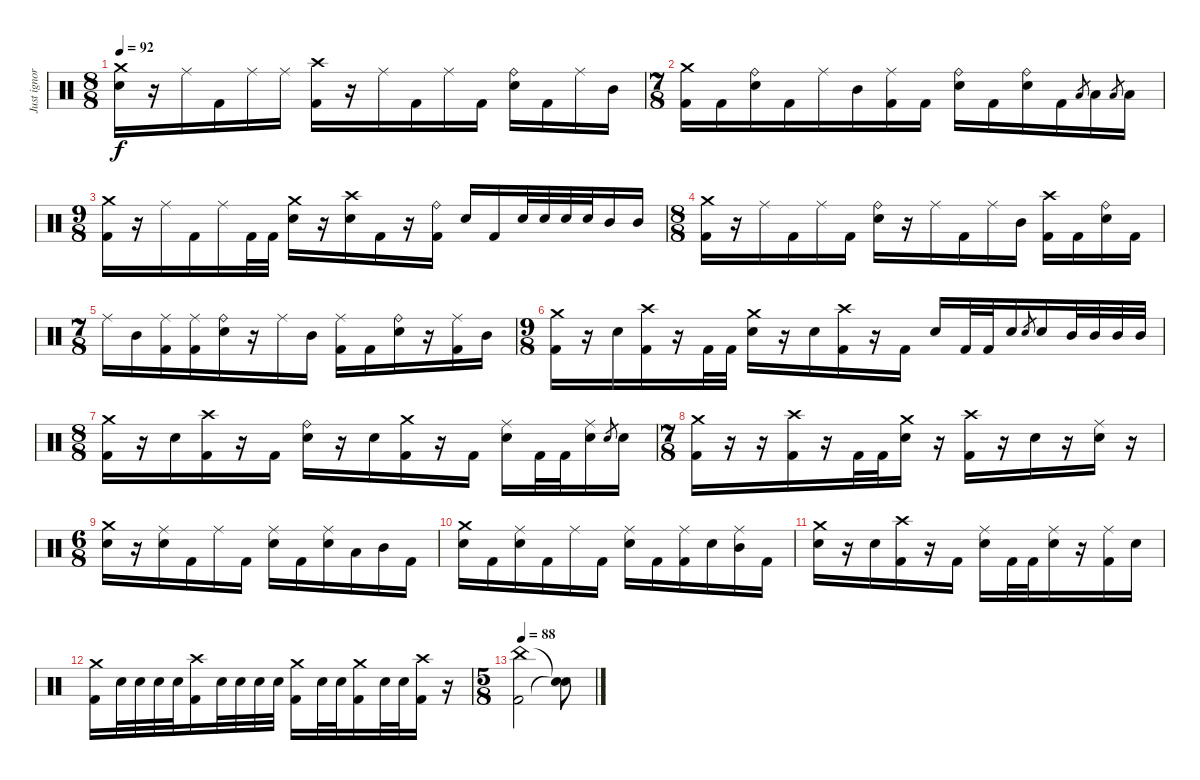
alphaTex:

\track ("Just ignore this track" "Just ignor") {instrument percussion}
\staff {score}
\articulation defaults
\ts (8 8)
\tempo 92
\clef neutral
\ks c
("Crash medium (hit)" "Electric Snare (hit)").16{dy f} r.16 "Ride (middle)".16 "Kick (hit) 2".16 "Ride (middle)".16 "Ride (middle)".16 ("Crash high (hit)" "Kick (hit) 2").16 r.16 "Ride (middle)".16 "Kick (hit) 2".16 "Ride (middle)".16 "Kick (hit) 2".16 ("Ride (bell)" "Electric Snare (hit)").16 "Kick (hit) 2".16 "Ride (middle)".16 "Mid Tom (hit)".16 |
\ts (7 8)
("Crash medium (hit)" "Kick (hit) 2").16 "Kick (hit) 2".16 ("Ride (bell)" "Electric Snare (hit)").16 "Kick (hit) 2".16 "Ride (middle)".16 "Mid Tom (hit)".16 ("Ride (middle)" "Kick (hit) 2").16 "Kick (hit) 2".16 ("Ride (bell)" "Electric Snare (hit)").16 "Kick (hit) 2".16 ("Ride (bell)" "Electric Snare (hit)").16 "Kick (hit) 2".16 "Low Floor Tom (hit)".8{gr} "Low Floor Tom (hit)".16 "Low Floor Tom (hit)".8{gr} "Low Floor Tom (hit)".16 |
\ts (9 8)
("Crash medium (hit)" "Kick (hit) 2").16 r.16 "Ride (middle)".16 "Kick (hit) 2".16 "Ride (middle)".16 "Kick (hit) 2".32 "Kick (hit) 2".32 ("Crash medium (hit)" "Electric Snare (hit)").16 r.16 ("Crash high (hit)" "Electric Snare (hit)").16 "Kick (hit) 2".16 r.16 ("Ride (bell)" "Kick (hit) 2").16 "Electric Snare (hit)".16 "Kick (hit) 2".16 "Electric Snare (hit)".32 "Electric Snare (hit)".32 "Electric Snare (hit)".32 "Electric Snare (hit)".32 "Mid Tom (hit)".16 "Mid Tom (hit)".16 |
\ts (8 8)
("Crash medium (hit)" "Kick (hit) 2").16 r.16 "Ride (middle)".16 "Kick (hit) 2".16 "Ride (middle)".16 "Kick (hit) 2".16 ("Ride (bell)" "Electric Snare (hit)").16 r.16 "Ride (middle)".16 "Kick (hit) 2".16 "Ride (middle)".16 "Mid Tom (hit)".16 ("Crash high (hit)" "Kick (hit) 2").16 "Kick (hit) 2".16 ("Ride (bell)" "Electric Snare (hit)").16 "Kick (hit) 2".16 |
\ts (7 8)
"Ride (middle)".16 "Mid Tom (hit)".16 ("Ride (middle)" "Kick (hit) 2").16 ("Ride (middle)" "Kick (hit) 2").16 ("Ride (bell)" "Electric Snare (hit)").16 r.16 "Ride (middle)".16 "Mid Tom (hit)".16 ("Ride (middle)" "Kick (hit) 2").16 "Kick (hit) 2".16 ("Ride (bell)" "Electric Snare (hit)").16 r.16 ("Ride (middle)" "Kick (hit) 2").16 "Mid Tom (hit)".16 |
\ts (9 8)
("Crash medium (hit)" "Kick (hit) 2").16 r.16 "Electric Snare (hit)".16 ("Crash high (hit)" "Kick (hit) 2").16 r.16 "Kick (hit) 2".32 "Kick (hit) 2".32 ("Crash medium (hit)" "Electric Snare (hit)").16 r.16 "Electric Snare (hit)".16 ("Crash high (hit)" "Kick (hit) 2").16 r.16 "Kick (hit) 2".16 "Electric Snare (hit)".16 "Kick (hit) 2".32 "Kick (hit) 2".32 "Electric Snare (hit)".16 "Electric Snare (hit)".8{gr} "Electric Snare (hit)".16 "Mid Tom (hit)".32 "Mid Tom (hit)".32 "Mid Tom (hit)".32 "Mid Tom (hit)".32 |
\ts (8 8)
("Crash medium (hit)" "Kick (hit) 2").16 r.16 "Electric Snare (hit)".16 ("Crash high (hit)" "Kick (hit) 2").16 r.16 "Kick (hit) 2".16 ("Ride (bell)" "Electric Snare (hit)").16 r.16 "Electric Snare (hit)".16 ("Crash medium (hit)" "Kick (hit) 2").16 r.16 "Kick (hit) 2".16 ("Ride (middle)" "Electric Snare (hit)").16 "Kick (hit) 2".32 "Kick (hit) 2".32 ("Ride (middle)" "Electric Snare (hit)").16 "Electric Snare (hit)".8{gr} "Electric Snare (hit)".16 |
\ts (7 8)
("Crash medium (hit)" "Kick (hit) 2").16 r.16 r.16 ("Crash high (hit)" "Kick (hit) 2").16 r.16 "Kick (hit) 2".32 "Kick (hit) 2".32 ("Crash medium (hit)" "Electric Snare (hit)").16 r.16 ("Crash high (hit)" "Kick (hit) 2").16 r.16 "Electric Snare (hit)".16 r.16 ("Ride (middle)" "Electric Snare (hit)").16 r.16 |
\ts (6 8)
("Crash medium (hit)" "Electric Snare (hit)").16 r.16 ("Ride (middle)" "Electric Snare (hit)").16 "Kick (hit) 2".16 "Ride (middle)".16 "Kick (hit) 2".16 ("Ride (middle)" "Electric Snare (hit)").16 "Kick (hit) 2".16 ("Ride (middle)" "Electric Snare (hit)").16 "Low Tom (hit)".16 "Mid Tom (hit)".16 "Kick (hit) 2".16 |
("Crash medium (hit)" "Electric Snare (hit)").16 "Kick (hit) 2".16 ("Ride (middle)" "Electric Snare (hit)").16 "Kick (hit) 2".16 "Ride (middle)".16 "Kick (hit) 2".16 ("Ride (middle)" "Electric Snare (hit)").16 "Kick (hit) 2".16 ("Ride (middle)" "Kick (hit) 2").16 "Electric Snare (hit)".16 ("Ride (middle)" "Mid Tom (hit)").16 "Kick (hit) 2".16 |
("Crash medium (hit)" "Electric Snare (hit)").16 r.16 "Electric Snare (hit)".16 ("Crash high (hit)" "Kick (hit) 2").16 r.16 "Kick (hit) 2".16 ("Ride (middle)" "Electric Snare (hit)").16 "Kick (hit) 2".32 "Kick (hit) 2".32 ("Ride (middle)" "Electric Snare (hit)").16 r.16 ("Ride (middle)" "Kick (hit) 2").16 "Electric Snare (hit)".16 |
("Crash medium (hit)" "Kick (hit) 2").16 "Electric Snare (hit)".32 "Electric Snare (hit)".32 "Electric Snare (hit)".32 "Electric Snare (hit)".32 ("Crash high (hit)" "Kick (hit) 2").16 "Electric Snare (hit)".32 "Electric Snare (hit)".32 "Electric Snare (hit)".32 "Electric Snare (hit)".32 ("Crash medium (hit)" "Kick (hit) 2").16 "Electric Snare (hit)".32 "Electric Snare (hit)".32 ("Crash medium (hit)" "Kick (hit) 2").16 "Electric Snare (hit)".32 "Electric Snare (hit)".32 ("Crash high (hit)" "Kick (hit) 2").16 r.16 |
\ts (5 8)
\tempo 88
("China (hit)" "Kick (hit) 2").2 ("Snare (hit)"{t} "Snare (hit)"{t}).8
